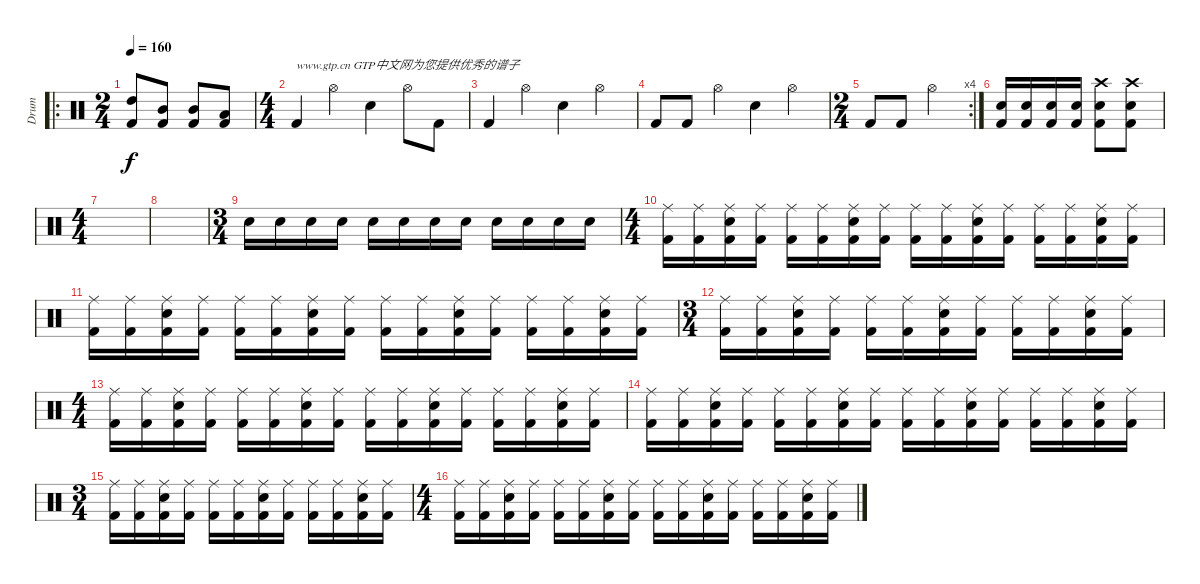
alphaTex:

\track ("Drum" "Drum") {instrument percussion}
\staff {score}
\articulation defaults
\ro
\ts (2 4)
\tempo 160
\clef neutral
\ks c
("Kick (hit) 2" "High Tom (hit)").8{dy f} ("Kick (hit) 2" "Mid Tom (hit)").8 ("Kick (hit) 2" "Mid Tom (hit)").8 ("Kick (hit) 2" "Low Tom (hit)").8 |
\ts (4 4)
"Kick (hit) 2".4{txt "www.gtp.cn GTP中文网为您提供优秀的谱子"} "Hi-Hat (open)".4 "Electric Snare (hit)".4 "Hi-Hat (open)".8 "Kick (hit) 2".8 |
"Kick (hit) 2".4 "Hi-Hat (open)".4 "Electric Snare (hit)".4 "Hi-Hat (open)".4 |
"Kick (hit) 2".8 "Kick (hit) 2".8 "Hi-Hat (open)".4 "Electric Snare (hit)".4 "Hi-Hat (open)".4 |
\rc 4
\ts (2 4)
"Kick (hit) 2".8 "Kick (hit) 2".8 "Hi-Hat (open)".4 |
("Kick (hit) 2" "Electric Snare (hit)").16 ("Kick (hit) 2" "Electric Snare (hit)").16 ("Kick (hit) 2" "Electric Snare (hit)").16 ("Kick (hit) 2" "Electric Snare (hit)").16 ("Kick (hit) 2" "Crash high (hit)" "Electric Snare (hit)").8 ("Kick (hit) 2" "Crash high (hit)" "Electric Snare (hit)").8 |
\ts (4 4)
|
|
\ts (3 4)
"Electric Snare (hit)".16 "Electric Snare (hit)".16 "Electric Snare (hit)".16 "Electric Snare (hit)".16 "Electric Snare (hit)".16 "Electric Snare (hit)".16 "Electric Snare (hit)".16 "Electric Snare (hit)".16 "Electric Snare (hit)".16 "Electric Snare (hit)".16 "Electric Snare (hit)".16 "Electric Snare (hit)".16 |
\ts (4 4)
("Kick (hit) 2" "Ride (middle)").16 ("Kick (hit) 2" "Ride (middle)").16 ("Kick (hit) 2" "Ride (middle)" "Electric Snare (hit)").16 ("Kick (hit) 2" "Ride (middle)").16 ("Kick (hit) 2" "Ride (middle)").16 ("Kick (hit) 2" "Ride (middle)").16 ("Kick (hit) 2" "Ride (middle)" "Electric Snare (hit)").16 ("Kick (hit) 2" "Ride (middle)").16 ("Kick (hit) 2" "Ride (middle)").16 ("Kick (hit) 2" "Ride (middle)").16 ("Kick (hit) 2" "Ride (middle)" "Electric Snare (hit)").16 ("Kick (hit) 2" "Ride (middle)").16 ("Kick (hit) 2" "Ride (middle)").16 ("Kick (hit) 2" "Ride (middle)").16 ("Kick (hit) 2" "Ride (middle)" "Electric Snare (hit)").16 ("Kick (hit) 2" "Ride (middle)").16 |
("Kick (hit) 2" "Ride (middle)").16 ("Kick (hit) 2" "Ride (middle)").16 ("Kick (hit) 2" "Ride (middle)" "Electric Snare (hit)").16 ("Kick (hit) 2" "Ride (middle)").16 ("Kick (hit) 2" "Ride (middle)").16 ("Kick (hit) 2" "Ride (middle)").16 ("Kick (hit) 2" "Ride (middle)" "Electric Snare (hit)").16 ("Kick (hit) 2" "Ride (middle)").16 ("Kick (hit) 2" "Ride (middle)").16 ("Kick (hit) 2" "Ride (middle)").16 ("Kick (hit) 2" "Ride (middle)" "Electric Snare (hit)").16 ("Kick (hit) 2" "Ride (middle)").16 ("Kick (hit) 2" "Ride (middle)").16 ("Kick (hit) 2" "Ride (middle)").16 ("Kick (hit) 2" "Ride (middle)" "Electric Snare (hit)").16 ("Kick (hit) 2" "Ride (middle)").16 |
\ts (3 4)
("Kick (hit) 2" "Ride (middle)").16 ("Kick (hit) 2" "Ride (middle)").16 ("Kick (hit) 2" "Ride (middle)" "Electric Snare (hit)").16 ("Kick (hit) 2" "Ride (middle)").16 ("Kick (hit) 2" "Ride (middle)").16 ("Kick (hit) 2" "Ride (middle)").16 ("Kick (hit) 2" "Ride (middle)" "Electric Snare (hit)").16 ("Kick (hit) 2" "Ride (middle)").16 ("Kick (hit) 2" "Ride (middle)").16 ("Kick (hit) 2" "Ride (middle)").16 ("Kick (hit) 2" "Ride (middle)" "Electric Snare (hit)").16 ("Kick (hit) 2" "Ride (middle)").16 |
\ts (4 4)
("Kick (hit) 2" "Ride (middle)").16 ("Kick (hit) 2" "Ride (middle)").16 ("Kick (hit) 2" "Ride (middle)" "Electric Snare (hit)").16 ("Kick (hit) 2" "Ride (middle)").16 ("Kick (hit) 2" "Ride (middle)").16 ("Kick (hit) 2" "Ride (middle)").16 ("Kick (hit) 2" "Ride (middle)" "Electric Snare (hit)").16 ("Kick (hit) 2" "Ride (middle)").16 ("Kick (hit) 2" "Ride (middle)").16 ("Kick (hit) 2" "Ride (middle)").16 ("Kick (hit) 2" "Ride (middle)" "Electric Snare (hit)").16 ("Kick (hit) 2" "Ride (middle)").16 ("Kick (hit) 2" "Ride (middle)").16 ("Kick (hit) 2" "Ride (middle)").16 ("Kick (hit) 2" "Ride (middle)" "Electric Snare (hit)").16 ("Kick (hit) 2" "Ride (middle)").16 |
("Kick (hit) 2" "Ride (middle)").16 ("Kick (hit) 2" "Ride (middle)").16 ("Kick (hit) 2" "Ride (middle)" "Electric Snare (hit)").16 ("Kick (hit) 2" "Ride (middle)").16 ("Kick (hit) 2" "Ride (middle)").16 ("Kick (hit) 2" "Ride (middle)").16 ("Kick (hit) 2" "Ride (middle)" "Electric Snare (hit)").16 ("Kick (hit) 2" "Ride (middle)").16 ("Kick (hit) 2" "Ride (middle)").16 ("Kick (hit) 2" "Ride (middle)").16 ("Kick (hit) 2" "Ride (middle)" "Electric Snare (hit)").16 ("Kick (hit) 2" "Ride (middle)").16 ("Kick (hit) 2" "Ride (middle)").16 ("Kick (hit) 2" "Ride (middle)").16 ("Kick (hit) 2" "Ride (middle)" "Electric Snare (hit)").16 ("Kick (hit) 2" "Ride (middle)").16 |
\ts (3 4)
("Kick (hit) 2" "Ride (middle)").16 ("Kick (hit) 2" "Ride (middle)").16 ("Kick (hit) 2" "Ride (middle)" "Electric Snare (hit)").16 ("Kick (hit) 2" "Ride (middle)").16 ("Kick (hit) 2" "Ride (middle)").16 ("Kick (hit) 2" "Ride (middle)").16 ("Kick (hit) 2" "Ride (middle)" "Electric Snare (hit)").16 ("Kick (hit) 2" "Ride (middle)").16 ("Kick (hit) 2" "Ride (middle)").16 ("Kick (hit) 2" "Ride (middle)").16 ("Kick (hit) 2" "Ride (middle)" "Electric Snare (hit)").16 ("Kick (hit) 2" "Ride (middle)").16 |
\ts (4 4)
("Kick (hit) 2" "Ride (middle)").16 ("Kick (hit) 2" "Ride (middle)").16 ("Kick (hit) 2" "Ride (middle)" "Electric Snare (hit)").16 ("Kick (hit) 2" "Ride (middle)").16 ("Kick (hit) 2" "Ride (middle)").16 ("Kick (hit) 2" "Ride (middle)").16 ("Kick (hit) 2" "Ride (middle)" "Electric Snare (hit)").16 ("Kick (hit) 2" "Ride (middle)").16 ("Kick (hit) 2" "Ride (middle)").16 ("Kick (hit) 2" "Ride (middle)").16 ("Kick (hit) 2" "Ride (middle)" "Electric Snare (hit)").16 ("Kick (hit) 2" "Ride (middle)").16 ("Kick (hit) 2" "Ride (middle)").16 ("Kick (hit) 2" "Ride (middle)").16 ("Kick (hit) 2" "Ride (middle)" "Electric Snare (hit)").16 ("Kick (hit) 2" "Ride (middle)").16
